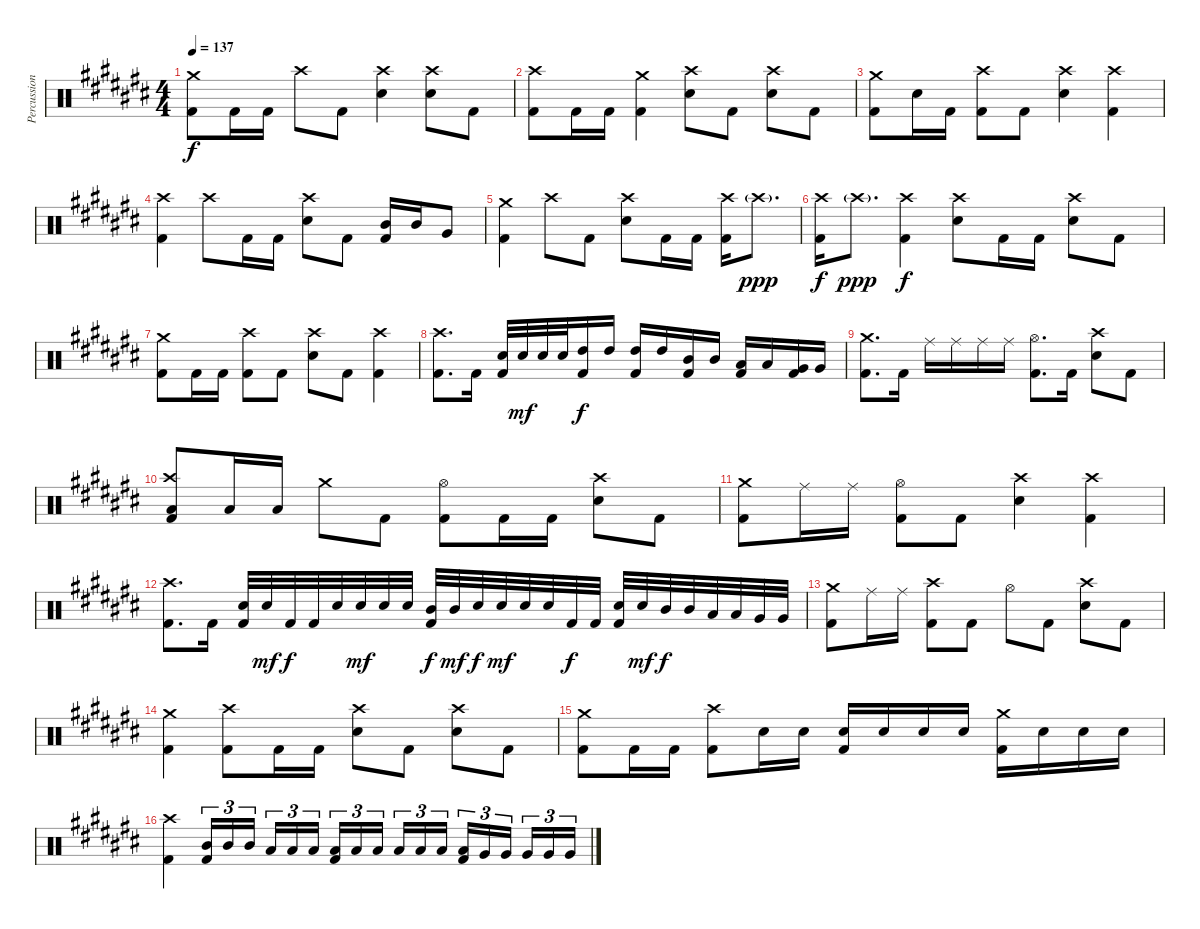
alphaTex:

\track ("Percussion" "Percussion") {instrument percussion}
\staff {score}
\articulation defaults
\ts (4 4)
\tempo 137
\clef neutral
\ks c#
("Crash medium (hit)" "Kick (hit) 2").8{dy f} "Kick (hit) 2".16 "Kick (hit) 2".16 "Crash high (hit)".8 "Kick (hit) 2".8 ("Crash high (hit)" "Electric Snare (hit)").4 ("Crash high (hit)" "Electric Snare (hit)").8 "Kick (hit) 2".8 |
("Crash high (hit)" "Kick (hit) 2").8 "Kick (hit) 2".16 "Kick (hit) 2".16 ("Crash medium (hit)" "Kick (hit) 2").4 ("Crash high (hit)" "Electric Snare (hit)").8 "Kick (hit) 2".8 ("Crash high (hit)" "Electric Snare (hit)").8 "Kick (hit) 2".8 |
("Crash medium (hit)" "Kick (hit) 2").8 "Electric Snare (hit)".16 "Kick (hit) 2".16 ("Crash high (hit)" "Kick (hit) 2").8 "Kick (hit) 2".8 ("Crash high (hit)" "Electric Snare (hit)").4 ("Crash high (hit)" "Kick (hit) 2").4 |
("Crash high (hit)" "Kick (hit) 2").4 "Crash high (hit)".8 "Kick (hit) 2".16 "Kick (hit) 2".16 ("Crash high (hit)" "Electric Snare (hit)").8 "Kick (hit) 2".8 ("Mid Tom (hit)" "Kick (hit) 2").16 "Mid Tom (hit)".16 "Very Low Tom (hit)".8 |
("Crash medium (hit)" "Kick (hit) 2").4 "Crash high (hit)".8 "Kick (hit) 2".8 ("Crash high (hit)" "Electric Snare (hit)").8 "Kick (hit) 2".16 "Kick (hit) 2".16 ("Crash high (hit)" "Kick (hit) 2").16 "Crash high (hit)"{g}.8{d dy ppp} |
("Crash high (hit)" "Kick (hit) 2").16{dy f} "Crash high (hit)"{g}.8{d dy ppp} ("Crash high (hit)" "Kick (hit) 2").4{dy f} ("Crash high (hit)" "Electric Snare (hit)").8 "Kick (hit) 2".16 "Kick (hit) 2".16 ("Crash high (hit)" "Electric Snare (hit)").8 "Kick (hit) 2".8 |
("Crash medium (hit)" "Kick (hit) 2").8 "Kick (hit) 2".16 "Kick (hit) 2".16 ("Crash high (hit)" "Kick (hit) 2").8 "Kick (hit) 2".8 ("Crash high (hit)" "Electric Snare (hit)").8 "Kick (hit) 2".8 ("Crash high (hit)" "Kick (hit) 2").4 |
("Crash high (hit)" "Kick (hit) 2").8{d} "Kick (hit) 2".16 ("Electric Snare (hit)" "Kick (hit) 2").32 "Electric Snare (hit)".32{dy mf} "Electric Snare (hit)".32 "Electric Snare (hit)".32 ("High Tom (hit)" "Kick (hit) 2").16{dy f} "High Tom (hit)".16 ("High Tom (hit)" "Kick (hit) 2").16 "High Tom (hit)".16 ("Mid Tom (hit)" "Kick (hit) 2").16 "Mid Tom (hit)".16 ("Low Tom (hit)" "Kick (hit) 2").16 "Low Tom (hit)".16 ("Very Low Tom (hit)" "Kick (hit) 2").16 "Very Low Tom (hit)".16 |
("Crash medium (hit)" "Kick (hit) 2").8{d} "Kick (hit) 2".16 "Ride (middle)".16 "Ride (middle)".16 "Ride (middle)".16 "Ride (middle)".16 ("Hi-Hat (open)" "Kick (hit) 2").8{d} "Kick (hit) 2".16 ("Crash high (hit)" "Electric Snare (hit)").8 "Kick (hit) 2".8 |
("Crash high (hit)" "Low Tom (hit)" "Kick (hit) 2").8 "Low Tom (hit)".16 "Low Tom (hit)".16 "Crash medium (hit)".8 "Kick (hit) 2".8 ("Hi-Hat (open)" "Kick (hit) 2").8 "Kick (hit) 2".16 "Kick (hit) 2".16 ("Crash high (hit)" "Electric Snare (hit)").8 "Kick (hit) 2".8 |
("Crash medium (hit)" "Kick (hit) 2").8 "Ride (middle)".16 "Ride (middle)".16 ("Hi-Hat (open)" "Kick (hit) 2").8 "Kick (hit) 2".8 ("Crash high (hit)" "Electric Snare (hit)").4 ("Crash high (hit)" "Kick (hit) 2").4 |
("Crash high (hit)" "Kick (hit) 2").8{d} "Kick (hit) 2".16 ("Electric Snare (hit)" "Kick (hit) 2").32 "Electric Snare (hit)".32{dy mf} "Kick (hit) 2".32{dy f} "Kick (hit) 2".32 "Electric Snare (hit)".32 "Electric Snare (hit)".32{dy mf} "Electric Snare (hit)".32 "Electric Snare (hit)".32 ("Mid Tom (hit)" "Kick (hit) 2").32{dy f} "Mid Tom (hit)".32{dy mf} "Electric Snare (hit)".32{dy f} "Electric Snare (hit)".32{dy mf} "Electric Snare (hit)".32 "Electric Snare (hit)".32 "Kick (hit) 2".32{dy f} "Kick (hit) 2".32 ("Electric Snare (hit)" "Kick (hit) 2").32 "Electric Snare (hit)".32{dy mf} "Mid Tom (hit)".32{dy f} "Mid Tom (hit)".32 "Low Tom (hit)".32 "Low Tom (hit)".32 "Very Low Tom (hit)".32 "Very Low Tom (hit)".32 |
("Crash medium (hit)" "Kick (hit) 2").8 "Ride (middle)".16 "Ride (middle)".16 ("Crash high (hit)" "Kick (hit) 2").8 "Kick (hit) 2".8 "Hi-Hat (open)".8 "Kick (hit) 2".8 ("Crash high (hit)" "Electric Snare (hit)").8 "Kick (hit) 2".8 |
("Crash medium (hit)" "Kick (hit) 2").4 ("Crash high (hit)" "Kick (hit) 2").8 "Kick (hit) 2".16 "Kick (hit) 2".16 ("Crash high (hit)" "Electric Snare (hit)").8 "Kick (hit) 2".8 ("Crash high (hit)" "Electric Snare (hit)").8 "Kick (hit) 2".8 |
("Crash medium (hit)" "Kick (hit) 2").8 "Kick (hit) 2".16 "Kick (hit) 2".16 ("Crash high (hit)" "Kick (hit) 2").8 "Electric Snare (hit)".16 "Electric Snare (hit)".16 ("Electric Snare (hit)" "Kick (hit) 2").16 "Electric Snare (hit)".16 "Electric Snare (hit)".16 "Electric Snare (hit)".16 ("Crash medium (hit)" "Kick (hit) 2").16 "Electric Snare (hit)".16 "Electric Snare (hit)".16 "Electric Snare (hit)".16 |
("Crash high (hit)" "Kick (hit) 2").4 ("Mid Tom (hit)" "Kick (hit) 2").16{tu (3 2)} "Mid Tom (hit)".16{tu (3 2)} "Mid Tom (hit)".16{tu (3 2) beam splitsecondary} "Low Tom (hit)".16{tu (3 2)} "Low Tom (hit)".16{tu (3 2)} "Low Tom (hit)".16{tu (3 2)} ("Low Floor Tom (hit)" "Kick (hit) 2").16{tu (3 2)} "Low Floor Tom (hit)".16{tu (3 2)} "Low Tom (hit)".16{tu (3 2) beam splitsecondary} "Low Floor Tom (hit)".16{tu (3 2)} "Low Floor Tom (hit)".16{tu (3 2)} "Low Tom (hit)".16{tu (3 2)} ("Low Floor Tom (hit)" "Kick (hit) 2").16{tu (3 2)} "Very Low Tom (hit)".16{tu (3 2)} "Very Low Tom (hit)".16{tu (3 2) beam splitsecondary} "Very Low Tom (hit)".16{tu (3 2)} "Very Low Tom (hit)".16{tu (3 2)} "Very Low Tom (hit)".16{tu (3 2)}
